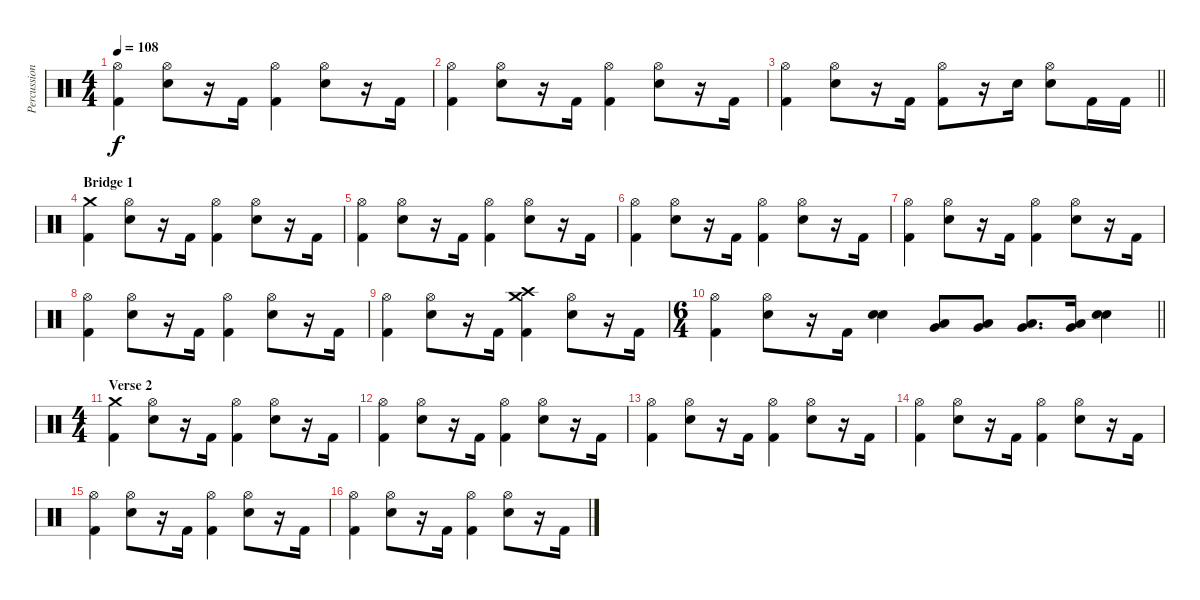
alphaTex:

\track ("Percussion" "Percussion") {instrument percussion}
\staff {score}
\articulation defaults
\ts (4 4)
\tempo 108
\clef neutral
\ks c
("Hi-Hat (open)" "Kick (hit) 2").4{dy f} ("Hi-Hat (open)" "Snare (hit) 2").8 r.16 "Kick (hit) 2".16 ("Hi-Hat (open)" "Kick (hit) 2").4 ("Hi-Hat (open)" "Snare (hit) 2").8 r.16 "Kick (hit) 2".16 |
("Hi-Hat (open)" "Kick (hit) 2").4 ("Hi-Hat (open)" "Snare (hit) 2").8 r.16 "Kick (hit) 2".16 ("Hi-Hat (open)" "Kick (hit) 2").4 ("Hi-Hat (open)" "Snare (hit) 2").8 r.16 "Kick (hit) 2".16 |
\barLineRight lightlight
("Hi-Hat (open)" "Kick (hit) 2").4 ("Hi-Hat (open)" "Snare (hit) 2").8 r.16 "Kick (hit) 2".16 ("Hi-Hat (open)" "Kick (hit) 2").8 r.16 "Snare (hit) 2".16 ("Hi-Hat (open)" "Snare (hit) 2").8 "Kick (hit) 2".16 "Kick (hit) 2".16 |
\section ("" "Bridge 1")
("Kick (hit) 2" "Crash medium (hit)").4 ("Hi-Hat (open)" "Snare (hit) 2").8 r.16 "Kick (hit) 2".16 ("Hi-Hat (open)" "Kick (hit) 2").4 ("Hi-Hat (open)" "Snare (hit) 2").8 r.16 "Kick (hit) 2".16 |
("Hi-Hat (open)" "Kick (hit) 2").4 ("Hi-Hat (open)" "Snare (hit) 2").8 r.16 "Kick (hit) 2".16 ("Hi-Hat (open)" "Kick (hit) 2").4 ("Hi-Hat (open)" "Snare (hit) 2").8 r.16 "Kick (hit) 2".16 |
("Hi-Hat (open)" "Kick (hit) 2").4 ("Hi-Hat (open)" "Snare (hit) 2").8 r.16 "Kick (hit) 2".16 ("Hi-Hat (open)" "Kick (hit) 2").4 ("Hi-Hat (open)" "Snare (hit) 2").8 r.16 "Kick (hit) 2".16 |
("Hi-Hat (open)" "Kick (hit) 2").4 ("Hi-Hat (open)" "Snare (hit) 2").8 r.16 "Kick (hit) 2".16 ("Hi-Hat (open)" "Kick (hit) 2").4 ("Hi-Hat (open)" "Snare (hit) 2").8 r.16 "Kick (hit) 2".16 |
("Hi-Hat (open)" "Kick (hit) 2").4 ("Hi-Hat (open)" "Snare (hit) 2").8 r.16 "Kick (hit) 2".16 ("Hi-Hat (open)" "Kick (hit) 2").4 ("Hi-Hat (open)" "Snare (hit) 2").8 r.16 "Kick (hit) 2".16 |
("Hi-Hat (open)" "Kick (hit) 2").4 ("Hi-Hat (open)" "Snare (hit) 2").8 r.16 "Kick (hit) 2".16 ("Kick (hit) 2" "Crash medium (hit)" "Crash high (hit)").4 ("Hi-Hat (open)" "Snare (hit) 2").8 r.16 "Kick (hit) 2".16 |
\ts (6 4)
\barLineRight lightlight
("Hi-Hat (open)" "Kick (hit) 2").4 ("Hi-Hat (open)" "Snare (hit) 2").8 r.16 "Kick (hit) 2".16 ("Snare (hit) 2" "Snare (hit) 2").4 ("Very Low Tom (hit)" "Low Tom (hit)").8 ("Very Low Tom (hit)" "Low Tom (hit)").8 ("Very Low Tom (hit)" "Low Tom (hit)").8{d} ("Very Low Tom (hit)" "Low Tom (hit)").16 ("Snare (hit) 2" "Snare (hit) 2").4 |
\ts (4 4)
\section ("" "Verse 2")
("Kick (hit) 2" "Crash medium (hit)").4 ("Hi-Hat (open)" "Snare (hit) 2").8 r.16 "Kick (hit) 2".16 ("Hi-Hat (open)" "Kick (hit) 2").4 ("Hi-Hat (open)" "Snare (hit) 2").8 r.16 "Kick (hit) 2".16 |
("Hi-Hat (open)" "Kick (hit) 2").4 ("Hi-Hat (open)" "Snare (hit) 2").8 r.16 "Kick (hit) 2".16 ("Hi-Hat (open)" "Kick (hit) 2").4 ("Hi-Hat (open)" "Snare (hit) 2").8 r.16 "Kick (hit) 2".16 |
("Hi-Hat (open)" "Kick (hit) 2").4 ("Hi-Hat (open)" "Snare (hit) 2").8 r.16 "Kick (hit) 2".16 ("Hi-Hat (open)" "Kick (hit) 2").4 ("Hi-Hat (open)" "Snare (hit) 2").8 r.16 "Kick (hit) 2".16 |
("Hi-Hat (open)" "Kick (hit) 2").4 ("Hi-Hat (open)" "Snare (hit) 2").8 r.16 "Kick (hit) 2".16 ("Hi-Hat (open)" "Kick (hit) 2").4 ("Hi-Hat (open)" "Snare (hit) 2").8 r.16 "Kick (hit) 2".16 |
("Hi-Hat (open)" "Kick (hit) 2").4 ("Hi-Hat (open)" "Snare (hit) 2").8 r.16 "Kick (hit) 2".16 ("Hi-Hat (open)" "Kick (hit) 2").4 ("Hi-Hat (open)" "Snare (hit) 2").8 r.16 "Kick (hit) 2".16 |
("Hi-Hat (open)" "Kick (hit) 2").4 ("Hi-Hat (open)" "Snare (hit) 2").8 r.16 "Kick (hit) 2".16 ("Hi-Hat (open)" "Kick (hit) 2").4 ("Hi-Hat (open)" "Snare (hit) 2").8 r.16 "Kick (hit) 2".16
